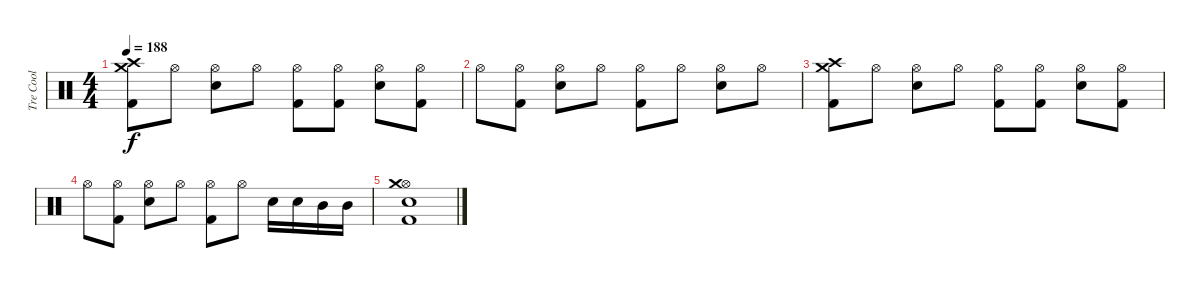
\track ("Tre Cool" "Tre Cool") {instrument percussion}
\staff {score}
\articulation defaults
\ts (4 4)
\tempo 188
\clef neutral
\ks c
("Crash high (hit)" "Crash medium (hit)" "Kick (hit) 2").8{dy f} "Hi-Hat (open)".8 ("Hi-Hat (open)" "Electric Snare (hit)").8 "Hi-Hat (open)".8 ("Hi-Hat (open)" "Kick (hit) 2").8 ("Hi-Hat (open)" "Kick (hit) 2").8 ("Hi-Hat (open)" "Electric Snare (hit)").8 ("Hi-Hat (open)" "Kick (hit) 2").8 |
"Hi-Hat (open)".8 ("Hi-Hat (open)" "Kick (hit) 2").8 ("Hi-Hat (open)" "Electric Snare (hit)").8 "Hi-Hat (open)".8 ("Hi-Hat (open)" "Kick (hit) 2").8 "Hi-Hat (open)".8 ("Hi-Hat (open)" "Electric Snare (hit)").8 "Hi-Hat (open)".8 |
("Crash high (hit)" "Crash medium (hit)" "Kick (hit) 2").8 "Hi-Hat (open)".8 ("Hi-Hat (open)" "Electric Snare (hit)").8 "Hi-Hat (open)".8 ("Hi-Hat (open)" "Kick (hit) 2").8 ("Hi-Hat (open)" "Kick (hit) 2").8 ("Hi-Hat (open)" "Electric Snare (hit)").8 ("Hi-Hat (open)" "Kick (hit) 2").8 |
"Hi-Hat (open)".8 ("Hi-Hat (open)" "Kick (hit) 2").8 ("Hi-Hat (open)" "Electric Snare (hit)").8 "Hi-Hat (open)".8 ("Hi-Hat (open)" "Kick (hit) 2").8 "Hi-Hat (open)".8 "Electric Snare (hit)".16 "Electric Snare (hit)".16 "Mid Tom (hit)".16 "Mid Tom (hit)".16 |
("Hi-Hat (open)" "Crash medium (hit)" "Electric Snare (hit)" "Kick (hit) 2").1
